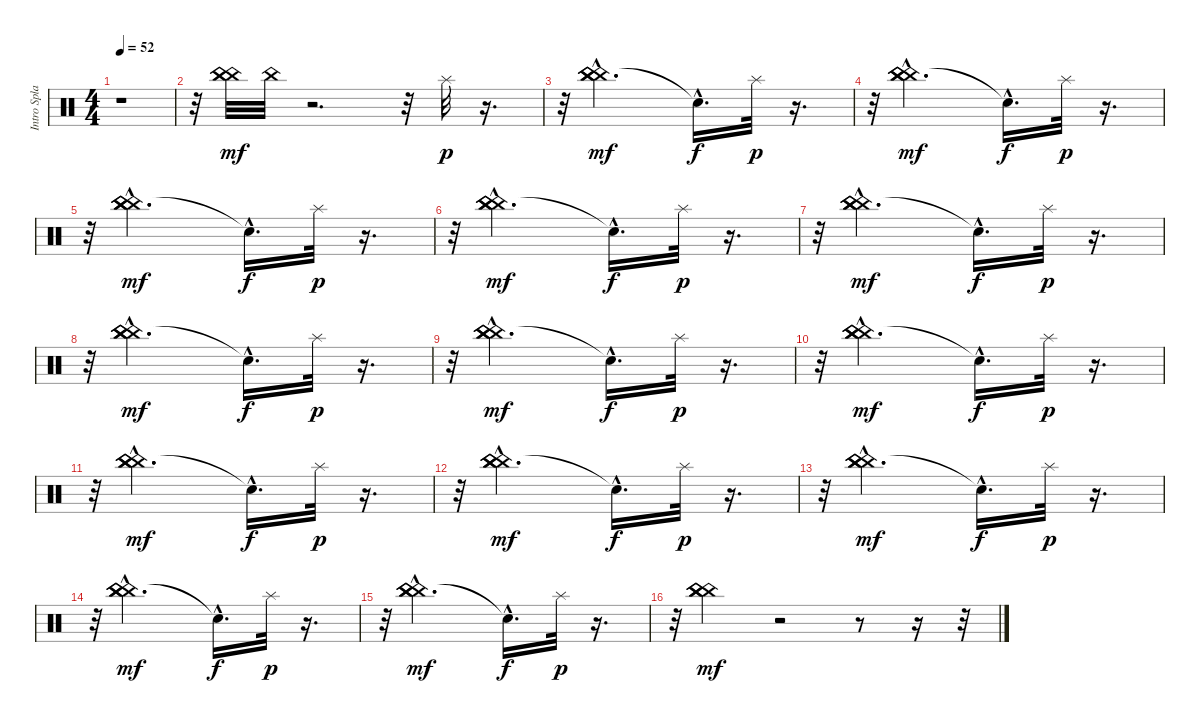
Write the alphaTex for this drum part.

\track ("Intro Splash Cymbals" "Intro Spla") {instrument percussion}
\staff {score}
\articulation defaults
\ts (4 4)
\tempo 52
\clef neutral
\ks c
r.1{dy mf} |
r.32 ("China (hit)" "China (hit)" "China (hit)").32 "China (hit)".32 r.2{d} r.32 "Splash (hit)".32{dy p} r.16{d} |
r.32 ("China (hit)"{hac} "China (hit)" "China (hit)" "China (hit)").2{d dy mf} "Snare (hit)"{hac t}.16{d dy f} "Splash (hit)".32{dy p} r.16{d} |
r.32 ("China (hit)"{hac} "China (hit)" "China (hit)" "China (hit)").2{d dy mf} "Snare (hit)"{hac t}.16{d dy f} "Splash (hit)".32{dy p} r.16{d} |
r.32 ("China (hit)"{hac} "China (hit)" "China (hit)" "China (hit)").2{d dy mf} "Snare (hit)"{hac t}.16{d dy f} "Splash (hit)".32{dy p} r.16{d} |
r.32 ("China (hit)"{hac} "China (hit)" "China (hit)" "China (hit)").2{d dy mf} "Snare (hit)"{hac t}.16{d dy f} "Splash (hit)".32{dy p} r.16{d} |
r.32 ("China (hit)"{hac} "China (hit)" "China (hit)" "China (hit)").2{d dy mf} "Snare (hit)"{hac t}.16{d dy f} "Splash (hit)".32{dy p} r.16{d} |
r.32 ("China (hit)"{hac} "China (hit)" "China (hit)" "China (hit)").2{d dy mf} "Snare (hit)"{hac t}.16{d dy f} "Splash (hit)".32{dy p} r.16{d} |
r.32 ("China (hit)"{hac} "China (hit)" "China (hit)" "China (hit)").2{d dy mf} "Snare (hit)"{hac t}.16{d dy f} "Splash (hit)".32{dy p} r.16{d} |
r.32 ("China (hit)"{hac} "China (hit)" "China (hit)" "China (hit)").2{d dy mf} "Snare (hit)"{hac t}.16{d dy f} "Splash (hit)".32{dy p} r.16{d} |
r.32 ("China (hit)"{hac} "China (hit)" "China (hit)" "China (hit)").2{d dy mf} "Snare (hit)"{hac t}.16{d dy f} "Splash (hit)".32{dy p} r.16{d} |
r.32 ("China (hit)"{hac} "China (hit)" "China (hit)" "China (hit)").2{d dy mf} "Snare (hit)"{hac t}.16{d dy f} "Splash (hit)".32{dy p} r.16{d} |
r.32 ("China (hit)"{hac} "China (hit)" "China (hit)" "China (hit)").2{d dy mf} "Snare (hit)"{hac t}.16{d dy f} "Splash (hit)".32{dy p} r.16{d} |
r.32 ("China (hit)"{hac} "China (hit)" "China (hit)" "China (hit)").2{d dy mf} "Snare (hit)"{hac t}.16{d dy f} "Splash (hit)".32{dy p} r.16{d} |
r.32 ("China (hit)"{hac} "China (hit)" "China (hit)" "China (hit)").2{d dy mf} "Snare (hit)"{hac t}.16{d dy f} "Splash (hit)".32{dy p} r.16{d} |
r.32 ("China (hit)" "China (hit)" "China (hit)" "China (hit)").4{dy mf} r.2 r.8 r.16 r.32
